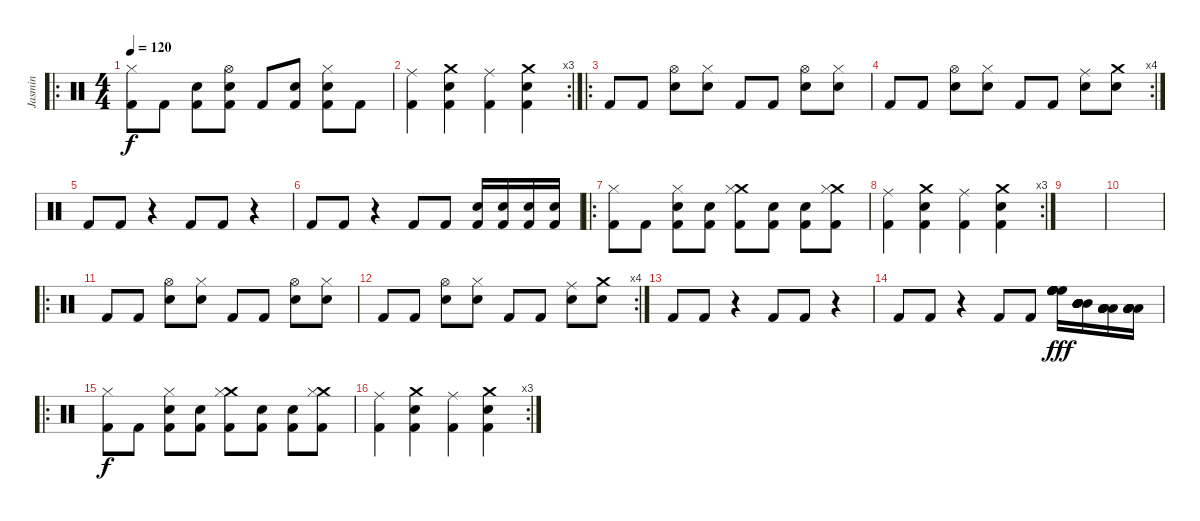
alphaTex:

\track ("Jasmin" "Jasmin") {instrument percussion}
\staff {score}
\articulation defaults
\ro
\ts (4 4)
\tempo 120
\clef neutral
\ks c
("Hi-Hat (closed)" "Kick (hit) 2").8{dy f} "Kick (hit) 2".8 ("Electric Snare (hit)" "Kick (hit) 2").8 ("Hi-Hat (open)" "Electric Snare (hit)" "Kick (hit) 2").8 "Kick (hit) 2".8 ("Electric Snare (hit)" "Kick (hit) 2").8 ("Hi-Hat (closed)" "Electric Snare (hit)" "Kick (hit) 2").8 "Kick (hit) 2".8 |
\rc 3
("Ride (middle)" "Kick (hit) 2").4 ("Crash medium (hit)" "Electric Snare (hit)" "Kick (hit) 2").4 ("Ride (middle)" "Kick (hit) 2").4 ("Crash medium (hit)" "Electric Snare (hit)" "Kick (hit) 2").4 |
\ro "Kick (hit) 2".8 "Kick (hit) 2".8
("Hi-Hat (open)" "Electric Snare (hit)").8 ("Hi-Hat (closed)" "Electric Snare (hit)").8 "Kick (hit) 2".8 "Kick (hit) 2".8 ("Hi-Hat (open)" "Electric Snare (hit)").8 ("Hi-Hat (closed)" "Electric Snare (hit)").8 |
\rc 4 "Kick (hit) 2".8 "Kick (hit) 2".8
("Hi-Hat (open)" "Electric Snare (hit)").8 ("Hi-Hat (closed)" "Electric Snare (hit)").8 "Kick (hit) 2".8 "Kick (hit) 2".8 ("Ride (middle)" "Electric Snare (hit)").8 ("Crash medium (hit)" "Electric Snare (hit)").8 |
"Kick (hit) 2".8 "Kick (hit) 2".8 r.4 "Kick (hit) 2".8 "Kick (hit) 2".8 r.4 |
"Kick (hit) 2".8 "Kick (hit) 2".8 r.4 "Kick (hit) 2".8 "Kick (hit) 2".8 ("Electric Snare (hit)" "Kick (hit) 2").16 ("Electric Snare (hit)" "Kick (hit) 2").16 ("Electric Snare (hit)" "Kick (hit) 2").16 ("Electric Snare (hit)" "Kick (hit) 2").16 |
\ro
("Hi-Hat (closed)" "Kick (hit) 2").8 "Kick (hit) 2".8 ("Hi-Hat (closed)" "Electric Snare (hit)" "Kick (hit) 2").8 ("Electric Snare (hit)" "Kick (hit) 2").8 ("Crash medium (hit)" "Hi-Hat (closed)" "Kick (hit) 2").8 ("Electric Snare (hit)" "Kick (hit) 2").8 ("Electric Snare (hit)" "Kick (hit) 2").8 ("Crash medium (hit)" "Hi-Hat (closed)" "Kick (hit) 2").8 |
\rc 3
("Ride (middle)" "Kick (hit) 2").4 ("Crash medium (hit)" "Electric Snare (hit)" "Kick (hit) 2").4 ("Ride (middle)" "Kick (hit) 2").4 ("Crash medium (hit)" "Electric Snare (hit)" "Kick (hit) 2").4 |
|
|
\ro "Kick (hit) 2".8 "Kick (hit) 2".8
("Hi-Hat (open)" "Electric Snare (hit)").8 ("Hi-Hat (closed)" "Electric Snare (hit)").8 "Kick (hit) 2".8 "Kick (hit) 2".8 ("Hi-Hat (open)" "Electric Snare (hit)").8 ("Hi-Hat (closed)" "Electric Snare (hit)").8 |
\rc 4 "Kick (hit) 2".8 "Kick (hit) 2".8
("Hi-Hat (open)" "Electric Snare (hit)").8 ("Hi-Hat (closed)" "Electric Snare (hit)").8 "Kick (hit) 2".8 "Kick (hit) 2".8 ("Ride (middle)" "Electric Snare (hit)").8 ("Crash medium (hit)" "Electric Snare (hit)").8 |
"Kick (hit) 2".8 "Kick (hit) 2".8 r.4 "Kick (hit) 2".8 "Kick (hit) 2".8 r.4 |
"Kick (hit) 2".8 "Kick (hit) 2".8 r.4 "Kick (hit) 2".8 "Kick (hit) 2".8 ("High Floor Tom (hit)" "High Floor Tom (hit)" "High Floor Tom (hit)" "High Floor Tom (hit)" "High Floor Tom (hit)" "High Floor Tom (hit)").16{dy fff} ("Mid Tom (hit)" "Mid Tom (hit)" "Mid Tom (hit)" "Mid Tom (hit)" "Mid Tom (hit)" "Mid Tom (hit)").16 ("Low Tom (hit)" "Low Tom (hit)" "Low Tom (hit)" "Low Tom (hit)" "Low Tom (hit)" "Low Tom (hit)").16 ("Low Floor Tom (hit)" "Low Floor Tom (hit)" "Low Floor Tom (hit)" "Low Floor Tom (hit)" "Low Floor Tom (hit)" "Low Floor Tom (hit)").16 |
\ro
("Hi-Hat (closed)" "Kick (hit) 2").8{dy f} "Kick (hit) 2".8 ("Hi-Hat (closed)" "Electric Snare (hit)" "Kick (hit) 2").8 ("Electric Snare (hit)" "Kick (hit) 2").8 ("Crash medium (hit)" "Hi-Hat (closed)" "Kick (hit) 2").8 ("Electric Snare (hit)" "Kick (hit) 2").8 ("Electric Snare (hit)" "Kick (hit) 2").8 ("Crash medium (hit)" "Hi-Hat (closed)" "Kick (hit) 2").8 |
\rc 3
("Ride (middle)" "Kick (hit) 2").4 ("Crash medium (hit)" "Electric Snare (hit)" "Kick (hit) 2").4 ("Ride (middle)" "Kick (hit) 2").4 ("Crash medium (hit)" "Electric Snare (hit)" "Kick (hit) 2").4
